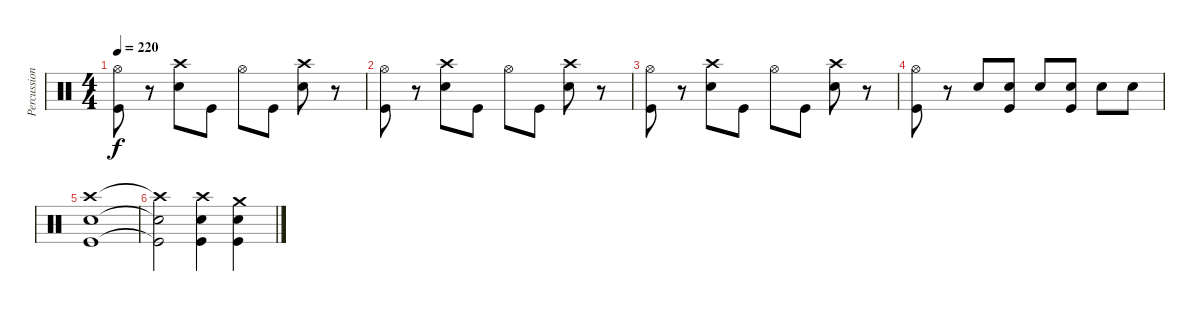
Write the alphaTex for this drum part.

\track ("Percussion" "Percussion") {instrument percussion}
\staff {score}
\articulation defaults
\ts (4 4)
\tempo 220
\clef neutral
\ks c
("Hi-Hat (open)" "Kick (hit)").8{dy f} r.8 ("Snare (hit) 2" "Crash high (hit)").8 "Kick (hit)".8 "Hi-Hat (open)".8 "Kick (hit)".8 ("Snare (hit) 2" "Crash high (hit)").8 r.8 |
("Hi-Hat (open)" "Kick (hit)").8 r.8 ("Snare (hit) 2" "Crash high (hit)").8 "Kick (hit)".8 "Hi-Hat (open)".8 "Kick (hit)".8 ("Snare (hit) 2" "Crash high (hit)").8 r.8 |
("Hi-Hat (open)" "Kick (hit)").8 r.8 ("Snare (hit) 2" "Crash high (hit)").8 "Kick (hit)".8 "Hi-Hat (open)".8 "Kick (hit)".8 ("Snare (hit) 2" "Crash high (hit)").8 r.8 |
("Hi-Hat (open)" "Kick (hit)").8 r.8 "Snare (hit) 2".8 ("Kick (hit)" "Snare (hit) 2").8 "Snare (hit) 2".8 ("Kick (hit)" "Snare (hit) 2").8 "Snare (hit) 2".8 "Snare (hit) 2".8 |
("Crash high (hit)" "Snare (hit) 2" "Kick (hit)").1 |
("Crash high (hit)"{t} "Snare (hit) 2"{t} "Kick (hit)"{t}).2 ("Crash high (hit)" "Snare (hit) 2" "Kick (hit)").4 ("Crash medium (hit)" "Snare (hit) 2" "Kick (hit)").4
